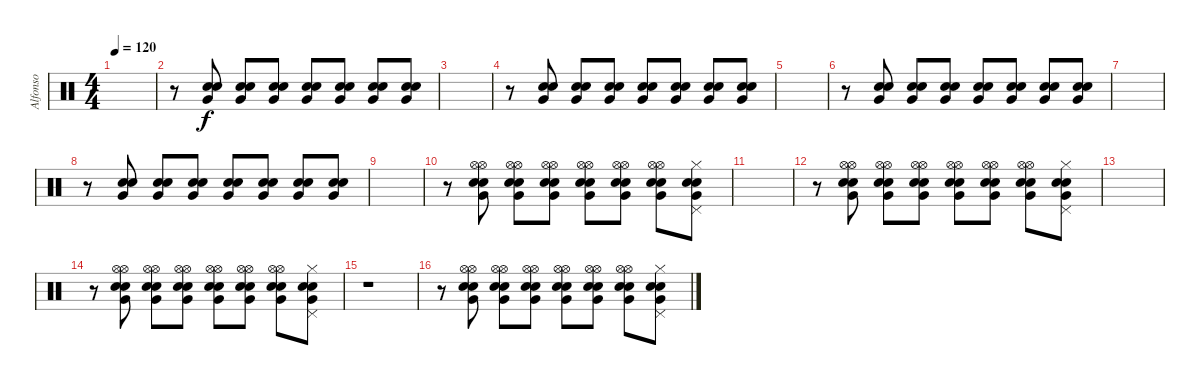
\track ("Alfonso" "Alfonso") {instrument percussion}
\staff {score}
\articulation defaults
\ts (4 4)
\tempo 120
\clef neutral
\ks c
|
r.8 ("Electric Snare (hit)" "Snare (hit) 2" "Very Low Tom (hit)").8 ("Electric Snare (hit)" "Snare (hit) 2" "Very Low Tom (hit)").8 ("Electric Snare (hit)" "Snare (hit) 2" "Very Low Tom (hit)").8 ("Electric Snare (hit)" "Snare (hit) 2" "Very Low Tom (hit)").8 ("Electric Snare (hit)" "Snare (hit) 2" "Very Low Tom (hit)").8 ("Electric Snare (hit)" "Snare (hit) 2" "Very Low Tom (hit)").8 ("Electric Snare (hit)" "Snare (hit) 2" "Very Low Tom (hit)").8 |
|
r.8 ("Electric Snare (hit)" "Snare (hit) 2" "Very Low Tom (hit)").8 ("Electric Snare (hit)" "Snare (hit) 2" "Very Low Tom (hit)").8 ("Electric Snare (hit)" "Snare (hit) 2" "Very Low Tom (hit)").8 ("Electric Snare (hit)" "Snare (hit) 2" "Very Low Tom (hit)").8 ("Electric Snare (hit)" "Snare (hit) 2" "Very Low Tom (hit)").8 ("Electric Snare (hit)" "Snare (hit) 2" "Very Low Tom (hit)").8 ("Electric Snare (hit)" "Snare (hit) 2" "Very Low Tom (hit)").8 |
|
r.8 ("Electric Snare (hit)" "Snare (hit) 2" "Very Low Tom (hit)").8 ("Electric Snare (hit)" "Snare (hit) 2" "Very Low Tom (hit)").8 ("Electric Snare (hit)" "Snare (hit) 2" "Very Low Tom (hit)").8 ("Electric Snare (hit)" "Snare (hit) 2" "Very Low Tom (hit)").8 ("Electric Snare (hit)" "Snare (hit) 2" "Very Low Tom (hit)").8 ("Electric Snare (hit)" "Snare (hit) 2" "Very Low Tom (hit)").8 ("Electric Snare (hit)" "Snare (hit) 2" "Very Low Tom (hit)").8 |
|
r.8 ("Electric Snare (hit)" "Snare (hit) 2" "Very Low Tom (hit)").8 ("Electric Snare (hit)" "Snare (hit) 2" "Very Low Tom (hit)").8 ("Electric Snare (hit)" "Snare (hit) 2" "Very Low Tom (hit)").8 ("Electric Snare (hit)" "Snare (hit) 2" "Very Low Tom (hit)").8 ("Electric Snare (hit)" "Snare (hit) 2" "Very Low Tom (hit)").8 ("Electric Snare (hit)" "Snare (hit) 2" "Very Low Tom (hit)").8 ("Electric Snare (hit)" "Snare (hit) 2" "Very Low Tom (hit)").8 |
|
r.8 ("Hi-Hat (open)" "Electric Snare (hit)" "Snare (hit) 2" "Very Low Tom (hit)" "Hi-Hat (open)").8 ("Hi-Hat (open)" "Electric Snare (hit)" "Snare (hit) 2" "Very Low Tom (hit)" "Hi-Hat (open)").8 ("Hi-Hat (open)" "Electric Snare (hit)" "Snare (hit) 2" "Very Low Tom (hit)" "Hi-Hat (open)").8 ("Hi-Hat (open)" "Electric Snare (hit)" "Snare (hit) 2" "Very Low Tom (hit)" "Hi-Hat (open)").8 ("Hi-Hat (open)" "Electric Snare (hit)" "Snare (hit) 2" "Very Low Tom (hit)" "Hi-Hat (open)").8 ("Hi-Hat (open)" "Electric Snare (hit)" "Snare (hit) 2" "Very Low Tom (hit)" "Hi-Hat (open)").8 ("Pedal Hi-Hat (hit)" "Electric Snare (hit)" "Snare (hit) 2" "Very Low Tom (hit)" "Hi-Hat (closed)").8 |
|
r.8 ("Hi-Hat (open)" "Electric Snare (hit)" "Snare (hit) 2" "Very Low Tom (hit)" "Hi-Hat (open)").8 ("Hi-Hat (open)" "Electric Snare (hit)" "Snare (hit) 2" "Very Low Tom (hit)" "Hi-Hat (open)").8 ("Hi-Hat (open)" "Electric Snare (hit)" "Snare (hit) 2" "Very Low Tom (hit)" "Hi-Hat (open)").8 ("Hi-Hat (open)" "Electric Snare (hit)" "Snare (hit) 2" "Very Low Tom (hit)" "Hi-Hat (open)").8 ("Hi-Hat (open)" "Electric Snare (hit)" "Snare (hit) 2" "Very Low Tom (hit)" "Hi-Hat (open)").8 ("Hi-Hat (open)" "Electric Snare (hit)" "Snare (hit) 2" "Very Low Tom (hit)" "Hi-Hat (open)").8 ("Pedal Hi-Hat (hit)" "Electric Snare (hit)" "Snare (hit) 2" "Very Low Tom (hit)" "Hi-Hat (closed)").8 |
|
r.8 ("Hi-Hat (open)" "Electric Snare (hit)" "Snare (hit) 2" "Very Low Tom (hit)" "Hi-Hat (open)").8 ("Hi-Hat (open)" "Electric Snare (hit)" "Snare (hit) 2" "Very Low Tom (hit)" "Hi-Hat (open)").8 ("Hi-Hat (open)" "Electric Snare (hit)" "Snare (hit) 2" "Very Low Tom (hit)" "Hi-Hat (open)").8 ("Hi-Hat (open)" "Electric Snare (hit)" "Snare (hit) 2" "Very Low Tom (hit)" "Hi-Hat (open)").8 ("Hi-Hat (open)" "Electric Snare (hit)" "Snare (hit) 2" "Very Low Tom (hit)" "Hi-Hat (open)").8 ("Hi-Hat (open)" "Electric Snare (hit)" "Snare (hit) 2" "Very Low Tom (hit)" "Hi-Hat (open)").8 ("Pedal Hi-Hat (hit)" "Electric Snare (hit)" "Snare (hit) 2" "Very Low Tom (hit)" "Hi-Hat (closed)").8 |
r.1 |
r.8 ("Hi-Hat (open)" "Electric Snare (hit)" "Snare (hit) 2" "Very Low Tom (hit)" "Hi-Hat (open)").8 ("Hi-Hat (open)" "Electric Snare (hit)" "Snare (hit) 2" "Very Low Tom (hit)" "Hi-Hat (open)").8 ("Hi-Hat (open)" "Electric Snare (hit)" "Snare (hit) 2" "Very Low Tom (hit)" "Hi-Hat (open)").8 ("Hi-Hat (open)" "Electric Snare (hit)" "Snare (hit) 2" "Very Low Tom (hit)" "Hi-Hat (open)").8 ("Hi-Hat (open)" "Electric Snare (hit)" "Snare (hit) 2" "Very Low Tom (hit)" "Hi-Hat (open)").8 ("Hi-Hat (open)" "Electric Snare (hit)" "Snare (hit) 2" "Very Low Tom (hit)" "Hi-Hat (open)").8 ("Pedal Hi-Hat (hit)" "Electric Snare (hit)" "Snare (hit) 2" "Very Low Tom (hit)" "Hi-Hat (closed)").8
